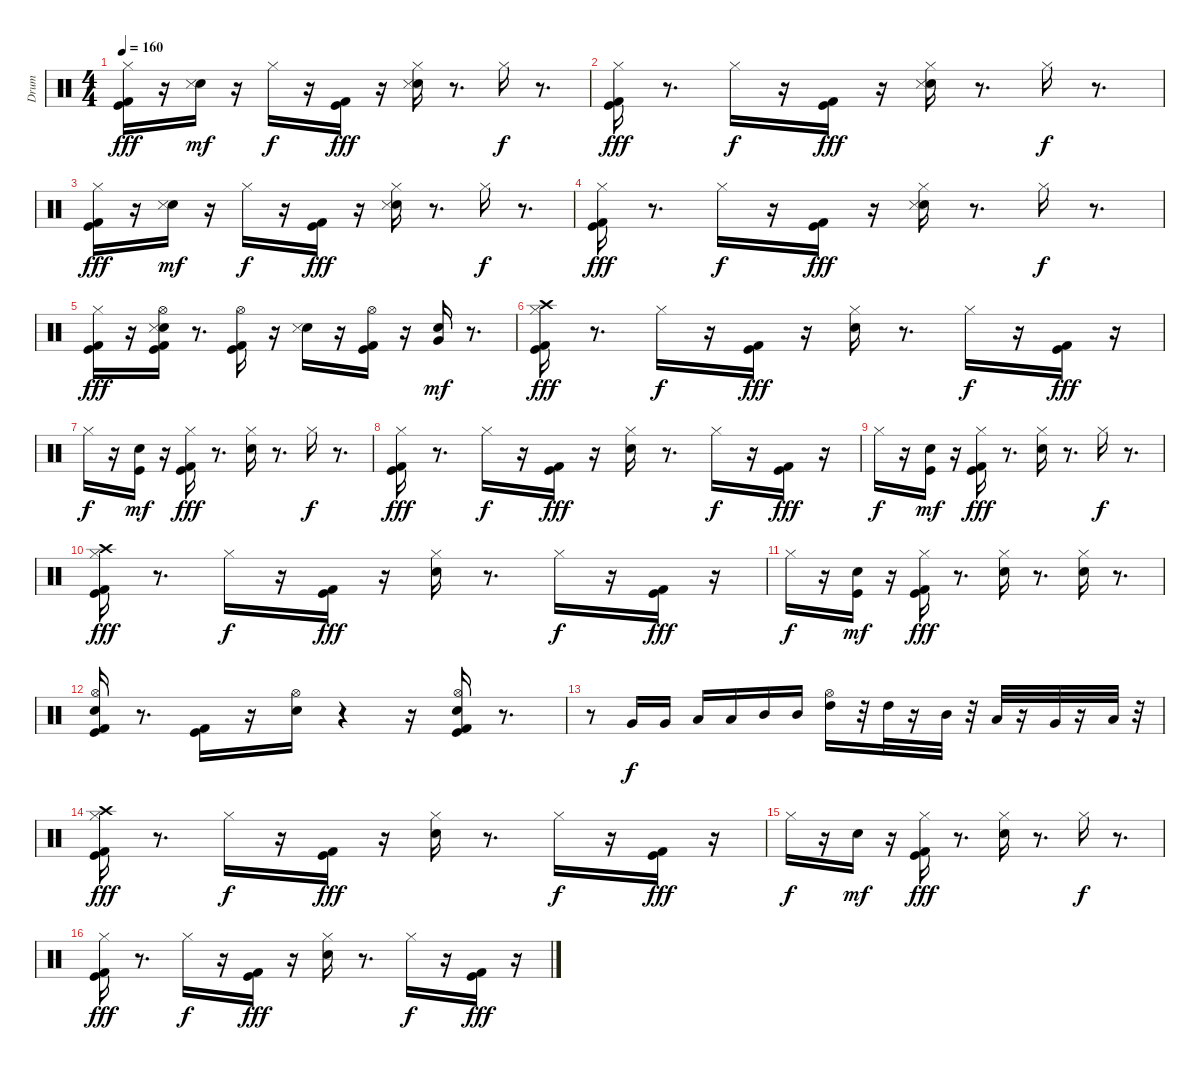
\track ("Drum" "Drum") {instrument percussion}
\staff {score}
\articulation defaults
\ts (4 4)
\tempo 160
\clef neutral
\ks c
("Kick (hit)" "Kick (hit) 2" "Hi-Hat (closed)").16{dy fff} r.16 ("Hand Clap (hit)" "Snare (side stick) 3").16{dy mf} r.16 "Hi-Hat (closed)".16{dy f} r.16 ("Kick (hit)" "Kick (hit) 2").16{dy fff} r.16 ("Hi-Hat (closed)" "Hand Clap (hit)" "Snare (side stick) 3").16 r.8{d} "Hi-Hat (closed)".16{dy f} r.8{d} |
("Kick (hit)" "Kick (hit) 2" "Hi-Hat (closed)").16{dy fff} r.8{d} "Hi-Hat (closed)".16{dy f} r.16 ("Kick (hit)" "Kick (hit) 2").16{dy fff} r.16 ("Hi-Hat (closed)" "Hand Clap (hit)" "Snare (side stick) 3").16 r.8{d} "Hi-Hat (closed)".16{dy f} r.8{d} |
("Kick (hit)" "Kick (hit) 2" "Hi-Hat (closed)").16{dy fff} r.16 ("Hand Clap (hit)" "Snare (side stick) 3").16{dy mf} r.16 "Hi-Hat (closed)".16{dy f} r.16 ("Kick (hit)" "Kick (hit) 2").16{dy fff} r.16 ("Hi-Hat (closed)" "Hand Clap (hit)" "Snare (side stick) 3").16 r.8{d} "Hi-Hat (closed)".16{dy f} r.8{d} |
("Kick (hit)" "Kick (hit) 2" "Hi-Hat (closed)").16{dy fff} r.8{d} "Hi-Hat (closed)".16{dy f} r.16 ("Kick (hit)" "Kick (hit) 2").16{dy fff} r.16 ("Hi-Hat (closed)" "Hand Clap (hit)" "Snare (side stick) 3").16 r.8{d} "Hi-Hat (closed)".16{dy f} r.8{d} |
("Kick (hit)" "Kick (hit) 2" "Hi-Hat (closed)").16{dy fff} r.16 ("Hand Clap (hit)" "Snare (side stick) 3" "Kick (hit)" "Kick (hit) 2" "Hi-Hat (open)").16 r.8{d} ("Kick (hit) 2" "Kick (hit)" "Hi-Hat (open)").16 r.16 ("Hand Clap (hit)" "Snare (side stick) 3").16 r.16 ("Kick (hit)" "Kick (hit) 2" "Hi-Hat (open)").16 r.16 ("Electric Snare (hit)" "Very Low Tom (hit)").16{dy mf} r.8{d} |
("Crash high (hit)" "Hi-Hat (closed)" "Kick (hit)" "Kick (hit) 2").16{dy fff} r.8{d} "Hi-Hat (closed)".16{dy f} r.16 ("Kick (hit)" "Kick (hit) 2").16{dy fff} r.16 ("Hi-Hat (closed)" "Electric Snare (hit)").16 r.8{d} "Hi-Hat (closed)".16{dy f} r.16 ("Kick (hit) 2" "Kick (hit)").16{dy fff} r.16 |
"Hi-Hat (closed)".16{dy f} r.16 ("Kick (hit)" "Electric Snare (hit)").16{dy mf} r.16 ("Hi-Hat (closed)" "Kick (hit)" "Kick (hit) 2").16{dy fff} r.8{d} ("Hi-Hat (closed)" "Electric Snare (hit)").16 r.8{d} "Hi-Hat (closed)".16{dy f} r.8{d} |
("Hi-Hat (closed)" "Kick (hit)" "Kick (hit) 2").16{dy fff} r.8{d} "Hi-Hat (closed)".16{dy f} r.16 ("Kick (hit)" "Kick (hit) 2").16{dy fff} r.16 ("Hi-Hat (closed)" "Electric Snare (hit)").16 r.8{d} "Hi-Hat (closed)".16{dy f} r.16 ("Kick (hit) 2" "Kick (hit)").16{dy fff} r.16 |
"Hi-Hat (closed)".16{dy f} r.16 ("Kick (hit)" "Electric Snare (hit)").16{dy mf} r.16 ("Hi-Hat (closed)" "Kick (hit)" "Kick (hit) 2").16{dy fff} r.8{d} ("Hi-Hat (closed)" "Electric Snare (hit)").16 r.8{d} "Hi-Hat (closed)".16{dy f} r.8{d} |
("Crash high (hit)" "Hi-Hat (closed)" "Kick (hit)" "Kick (hit) 2").16{dy fff} r.8{d} "Hi-Hat (closed)".16{dy f} r.16 ("Kick (hit)" "Kick (hit) 2").16{dy fff} r.16 ("Hi-Hat (closed)" "Electric Snare (hit)").16 r.8{d} "Hi-Hat (closed)".16{dy f} r.16 ("Kick (hit) 2" "Kick (hit)").16{dy fff} r.16 |
"Hi-Hat (closed)".16{dy f} r.16 ("Kick (hit)" "Electric Snare (hit)").16{dy mf} r.16 ("Hi-Hat (closed)" "Kick (hit)" "Kick (hit) 2").16{dy fff} r.8{d} ("Hi-Hat (closed)" "Electric Snare (hit)").16 r.8{d} ("Hi-Hat (closed)" "Electric Snare (hit)").16 r.8{d} |
("Kick (hit)" "Kick (hit) 2" "Hi-Hat (open)" "Electric Snare (hit)").16 r.8{d} ("Kick (hit) 2" "Kick (hit)").16 r.16 ("Hi-Hat (open)" "Electric Snare (hit)").16 r.4 r.16 ("Kick (hit)" "Kick (hit) 2" "Hi-Hat (open)" "Electric Snare (hit)").16 r.8{d} |
r.8 "Very Low Tom (hit)".16{dy f} "Very Low Tom (hit)".16 "Low Tom (hit)".16 "Low Tom (hit)".16 "Mid Tom (hit)".16 "Mid Tom (hit)".16 ("Hi-Hat (open)" "High Tom (hit)").16 r.32 "High Tom (hit)".32 r.16 "Mid Tom (hit)".32 r.32 "Low Tom (hit)".32 r.16 "Very Low Tom (hit)".32 r.16 "Low Floor Tom (hit)".32 r.32 |
("Crash high (hit)" "Hi-Hat (closed)" "Kick (hit)" "Kick (hit) 2").16{dy fff} r.8{d} "Hi-Hat (closed)".16{dy f} r.16 ("Kick (hit)" "Kick (hit) 2").16{dy fff} r.16 ("Hi-Hat (closed)" "Electric Snare (hit)").16 r.8{d} "Hi-Hat (closed)".16{dy f} r.16 ("Kick (hit)" "Kick (hit) 2").16{dy fff} r.16 |
"Hi-Hat (closed)".16{dy f} r.16 "Electric Snare (hit)".16{dy mf} r.16 ("Hi-Hat (closed)" "Kick (hit) 2" "Kick (hit)").16{dy fff} r.8{d} ("Hi-Hat (closed)" "Electric Snare (hit)").16 r.8{d} "Hi-Hat (closed)".16{dy f} r.8{d} |
("Hi-Hat (closed)" "Kick (hit)" "Kick (hit) 2").16{dy fff} r.8{d} "Hi-Hat (closed)".16{dy f} r.16 ("Kick (hit)" "Kick (hit) 2").16{dy fff} r.16 ("Hi-Hat (closed)" "Electric Snare (hit)").16 r.8{d} "Hi-Hat (closed)".16{dy f} r.16 ("Kick (hit)" "Kick (hit) 2").16{dy fff} r.16
